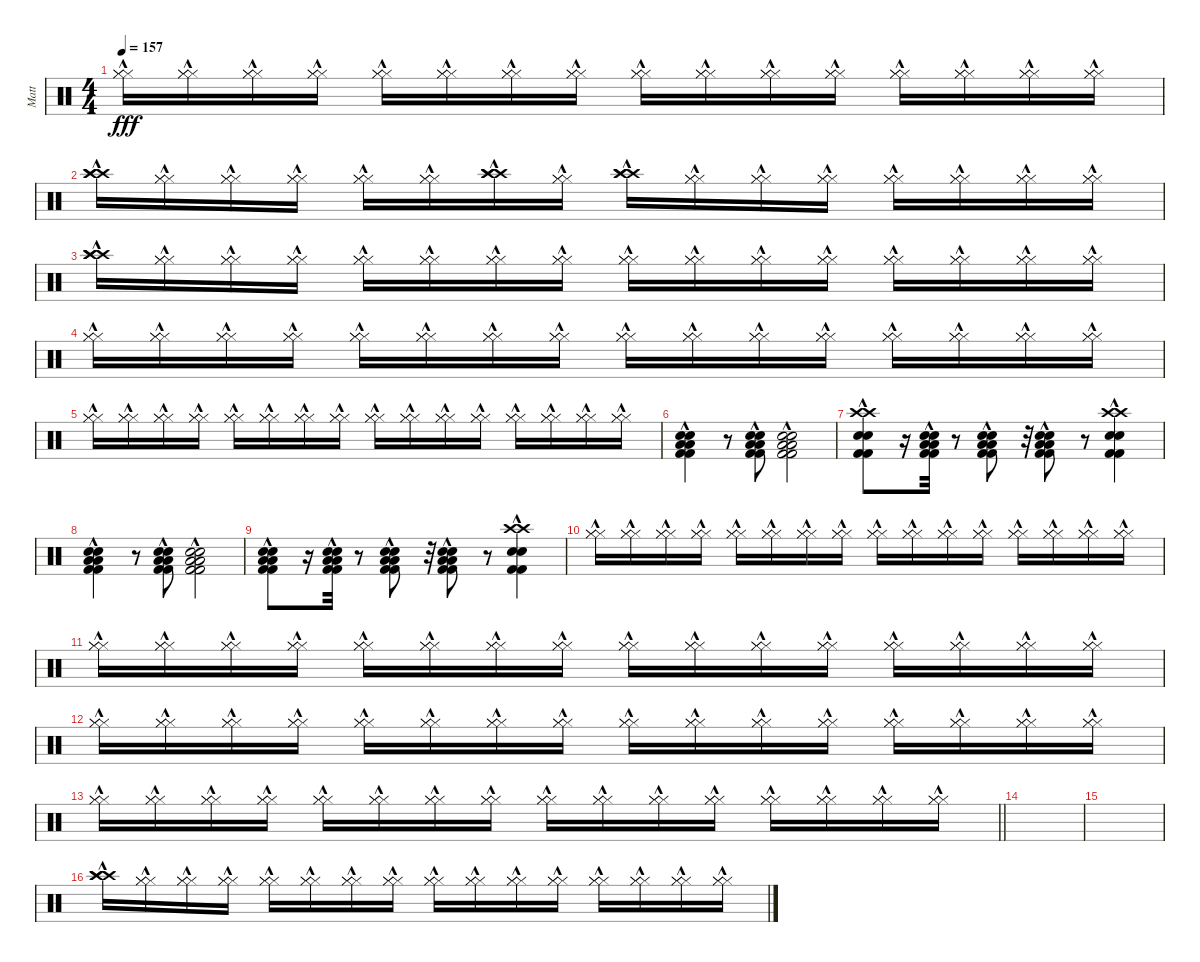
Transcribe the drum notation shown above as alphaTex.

\track ("Matt" "Matt") {instrument percussion}
\staff {score}
\articulation defaults
\ts (4 4)
\tempo 157
\clef neutral
\ks c
("Hi-Hat (closed)"{hac} "Hi-Hat (closed)"{hac} "Hi-Hat (closed)"{hac}).16{dy fff} ("Hi-Hat (closed)"{hac} "Hi-Hat (closed)"{hac} "Hi-Hat (closed)"{hac}).16 ("Hi-Hat (closed)"{hac} "Hi-Hat (closed)"{hac} "Hi-Hat (closed)"{hac}).16 ("Hi-Hat (closed)"{hac} "Hi-Hat (closed)"{hac} "Hi-Hat (closed)"{hac}).16 ("Hi-Hat (closed)"{hac} "Hi-Hat (closed)"{hac} "Hi-Hat (closed)"{hac}).16 ("Hi-Hat (closed)"{hac} "Hi-Hat (closed)"{hac} "Hi-Hat (closed)"{hac}).16 ("Hi-Hat (closed)"{hac} "Hi-Hat (closed)"{hac} "Hi-Hat (closed)"{hac}).16 ("Hi-Hat (closed)"{hac} "Hi-Hat (closed)"{hac} "Hi-Hat (closed)"{hac}).16 ("Hi-Hat (closed)"{hac} "Hi-Hat (closed)"{hac} "Hi-Hat (closed)"{hac}).16 ("Hi-Hat (closed)"{hac} "Hi-Hat (closed)"{hac} "Hi-Hat (closed)"{hac}).16 ("Hi-Hat (closed)"{hac} "Hi-Hat (closed)"{hac} "Hi-Hat (closed)"{hac}).16 ("Hi-Hat (closed)"{hac} "Hi-Hat (closed)"{hac} "Hi-Hat (closed)"{hac}).16 ("Hi-Hat (closed)"{hac} "Hi-Hat (closed)"{hac} "Hi-Hat (closed)"{hac}).16 ("Hi-Hat (closed)"{hac} "Hi-Hat (closed)"{hac} "Hi-Hat (closed)"{hac}).16 ("Hi-Hat (closed)"{hac} "Hi-Hat (closed)"{hac} "Hi-Hat (closed)"{hac}).16 ("Hi-Hat (closed)"{hac} "Hi-Hat (closed)"{hac} "Hi-Hat (closed)"{hac}).16 |
("Crash high (hit)"{hac} "Crash high (hit)"{hac} "Crash high (hit)"{hac}).16 ("Hi-Hat (closed)"{hac} "Hi-Hat (closed)"{hac} "Hi-Hat (closed)"{hac}).16 ("Hi-Hat (closed)"{hac} "Hi-Hat (closed)"{hac} "Hi-Hat (closed)"{hac}).16 ("Hi-Hat (closed)"{hac} "Hi-Hat (closed)"{hac} "Hi-Hat (closed)"{hac}).16 ("Hi-Hat (closed)"{hac} "Hi-Hat (closed)"{hac} "Hi-Hat (closed)"{hac}).16 ("Hi-Hat (closed)"{hac} "Hi-Hat (closed)"{hac} "Hi-Hat (closed)"{hac}).16 ("Crash high (hit)"{hac} "Crash high (hit)"{hac} "Crash high (hit)"{hac}).16 ("Hi-Hat (closed)"{hac} "Hi-Hat (closed)"{hac} "Hi-Hat (closed)"{hac}).16 ("Crash high (hit)"{hac} "Crash high (hit)"{hac} "Crash high (hit)"{hac}).16 ("Hi-Hat (closed)"{hac} "Hi-Hat (closed)"{hac} "Hi-Hat (closed)"{hac}).16 ("Hi-Hat (closed)"{hac} "Hi-Hat (closed)"{hac} "Hi-Hat (closed)"{hac}).16 ("Hi-Hat (closed)"{hac} "Hi-Hat (closed)"{hac} "Hi-Hat (closed)"{hac}).16 ("Hi-Hat (closed)"{hac} "Hi-Hat (closed)"{hac} "Hi-Hat (closed)"{hac}).16 ("Hi-Hat (closed)"{hac} "Hi-Hat (closed)"{hac} "Hi-Hat (closed)"{hac}).16 ("Hi-Hat (closed)"{hac} "Hi-Hat (closed)"{hac} "Hi-Hat (closed)"{hac}).16 ("Hi-Hat (closed)"{hac} "Hi-Hat (closed)"{hac} "Hi-Hat (closed)"{hac}).16 |
("Crash high (hit)"{hac} "Crash high (hit)"{hac} "Crash high (hit)"{hac}).16 ("Hi-Hat (closed)"{hac} "Hi-Hat (closed)"{hac} "Hi-Hat (closed)"{hac}).16 ("Hi-Hat (closed)"{hac} "Hi-Hat (closed)"{hac} "Hi-Hat (closed)"{hac}).16 ("Hi-Hat (closed)"{hac} "Hi-Hat (closed)"{hac} "Hi-Hat (closed)"{hac}).16 ("Hi-Hat (closed)"{hac} "Hi-Hat (closed)"{hac} "Hi-Hat (closed)"{hac}).16 ("Hi-Hat (closed)"{hac} "Hi-Hat (closed)"{hac} "Hi-Hat (closed)"{hac}).16 ("Hi-Hat (closed)"{hac} "Hi-Hat (closed)"{hac} "Hi-Hat (closed)"{hac}).16 ("Hi-Hat (closed)"{hac} "Hi-Hat (closed)"{hac} "Hi-Hat (closed)"{hac}).16 ("Hi-Hat (closed)"{hac} "Hi-Hat (closed)"{hac} "Hi-Hat (closed)"{hac}).16 ("Hi-Hat (closed)"{hac} "Hi-Hat (closed)"{hac} "Hi-Hat (closed)"{hac}).16 ("Hi-Hat (closed)"{hac} "Hi-Hat (closed)"{hac} "Hi-Hat (closed)"{hac}).16 ("Hi-Hat (closed)"{hac} "Hi-Hat (closed)"{hac} "Hi-Hat (closed)"{hac}).16 ("Hi-Hat (closed)"{hac} "Hi-Hat (closed)"{hac} "Hi-Hat (closed)"{hac}).16 ("Hi-Hat (closed)"{hac} "Hi-Hat (closed)"{hac} "Hi-Hat (closed)"{hac}).16 ("Hi-Hat (closed)"{hac} "Hi-Hat (closed)"{hac} "Hi-Hat (closed)"{hac}).16 ("Hi-Hat (closed)"{hac} "Hi-Hat (closed)"{hac} "Hi-Hat (closed)"{hac}).16 |
("Hi-Hat (closed)"{hac} "Hi-Hat (closed)"{hac} "Hi-Hat (closed)"{hac}).16 ("Hi-Hat (closed)"{hac} "Hi-Hat (closed)"{hac} "Hi-Hat (closed)"{hac}).16 ("Hi-Hat (closed)"{hac} "Hi-Hat (closed)"{hac} "Hi-Hat (closed)"{hac}).16 ("Hi-Hat (closed)"{hac} "Hi-Hat (closed)"{hac} "Hi-Hat (closed)"{hac}).16 ("Hi-Hat (closed)"{hac} "Hi-Hat (closed)"{hac} "Hi-Hat (closed)"{hac}).16 ("Hi-Hat (closed)"{hac} "Hi-Hat (closed)"{hac} "Hi-Hat (closed)"{hac}).16 ("Hi-Hat (closed)"{hac} "Hi-Hat (closed)"{hac} "Hi-Hat (closed)"{hac}).16 ("Hi-Hat (closed)"{hac} "Hi-Hat (closed)"{hac} "Hi-Hat (closed)"{hac}).16 ("Hi-Hat (closed)"{hac} "Hi-Hat (closed)"{hac} "Hi-Hat (closed)"{hac}).16 ("Hi-Hat (closed)"{hac} "Hi-Hat (closed)"{hac} "Hi-Hat (closed)"{hac}).16 ("Hi-Hat (closed)"{hac} "Hi-Hat (closed)"{hac} "Hi-Hat (closed)"{hac}).16 ("Hi-Hat (closed)"{hac} "Hi-Hat (closed)"{hac} "Hi-Hat (closed)"{hac}).16 ("Hi-Hat (closed)"{hac} "Hi-Hat (closed)"{hac} "Hi-Hat (closed)"{hac}).16 ("Hi-Hat (closed)"{hac} "Hi-Hat (closed)"{hac} "Hi-Hat (closed)"{hac}).16 ("Hi-Hat (closed)"{hac} "Hi-Hat (closed)"{hac} "Hi-Hat (closed)"{hac}).16 ("Hi-Hat (closed)"{hac} "Hi-Hat (closed)"{hac} "Hi-Hat (closed)"{hac}).16 |
("Hi-Hat (closed)"{hac} "Hi-Hat (closed)"{hac} "Hi-Hat (closed)"{hac}).16 ("Hi-Hat (closed)"{hac} "Hi-Hat (closed)"{hac} "Hi-Hat (closed)"{hac}).16 ("Hi-Hat (closed)"{hac} "Hi-Hat (closed)"{hac} "Hi-Hat (closed)"{hac}).16 ("Hi-Hat (closed)"{hac} "Hi-Hat (closed)"{hac} "Hi-Hat (closed)"{hac}).16 ("Hi-Hat (closed)"{hac} "Hi-Hat (closed)"{hac} "Hi-Hat (closed)"{hac}).16 ("Hi-Hat (closed)"{hac} "Hi-Hat (closed)"{hac} "Hi-Hat (closed)"{hac}).16 ("Hi-Hat (closed)"{hac} "Hi-Hat (closed)"{hac} "Hi-Hat (closed)"{hac}).16 ("Hi-Hat (closed)"{hac} "Hi-Hat (closed)"{hac} "Hi-Hat (closed)"{hac}).16 ("Hi-Hat (closed)"{hac} "Hi-Hat (closed)"{hac} "Hi-Hat (closed)"{hac}).16 ("Hi-Hat (closed)"{hac} "Hi-Hat (closed)"{hac} "Hi-Hat (closed)"{hac}).16 ("Hi-Hat (closed)"{hac} "Hi-Hat (closed)"{hac} "Hi-Hat (closed)"{hac}).16 ("Hi-Hat (closed)"{hac} "Hi-Hat (closed)"{hac} "Hi-Hat (closed)"{hac}).16 ("Hi-Hat (closed)"{hac} "Hi-Hat (closed)"{hac} "Hi-Hat (closed)"{hac}).16 ("Hi-Hat (closed)"{hac} "Hi-Hat (closed)"{hac} "Hi-Hat (closed)"{hac}).16 ("Hi-Hat (closed)"{hac} "Hi-Hat (closed)"{hac} "Hi-Hat (closed)"{hac}).16 ("Hi-Hat (closed)"{hac} "Hi-Hat (closed)"{hac} "Hi-Hat (closed)"{hac}).16 |
("Low Tom (hit)"{hac} "Low Tom (hit)"{hac} "Kick (hit) 2"{hac} "Kick (hit) 2"{hac} "Snare (hit) 2"{hac} "Snare (hit) 2"{hac}).4{volume 13} r.8 ("Low Tom (hit)"{hac} "Low Tom (hit)"{hac} "Kick (hit) 2"{hac} "Kick (hit) 2"{hac} "Snare (hit) 2"{hac} "Snare (hit) 2"{hac}).8 ("Low Tom (hit)"{hac} "Low Tom (hit)"{hac} "Kick (hit) 2"{hac} "Kick (hit) 2"{hac} "Snare (hit) 2"{hac} "Snare (hit) 2"{hac}).2 |
("Crash high (hit)"{hac} "Crash high (hit)"{hac} "Kick (hit) 2"{hac} "Kick (hit) 2"{hac} "Snare (hit) 2"{hac} "Snare (hit) 2"{hac}).8 r.16 ("Low Tom (hit)"{hac} "Low Tom (hit)"{hac} "Kick (hit) 2"{hac} "Kick (hit) 2"{hac} "Snare (hit) 2"{hac} "Snare (hit) 2"{hac}).32 r.8 ("Low Tom (hit)"{hac} "Low Tom (hit)"{hac} "Kick (hit) 2"{hac} "Kick (hit) 2"{hac} "Snare (hit) 2"{hac} "Snare (hit) 2"{hac}).8 r.32 ("Low Tom (hit)"{hac} "Low Tom (hit)"{hac} "Kick (hit) 2"{hac} "Kick (hit) 2"{hac} "Snare (hit) 2"{hac} "Snare (hit) 2"{hac}).8 r.8 ("Crash high (hit)"{hac} "Crash high (hit)"{hac} "Kick (hit) 2"{hac} "Kick (hit) 2"{hac} "Snare (hit) 2"{hac} "Snare (hit) 2"{hac}).4 |
("Low Tom (hit)"{hac} "Low Tom (hit)"{hac} "Kick (hit) 2"{hac} "Kick (hit) 2"{hac} "Snare (hit) 2"{hac} "Snare (hit) 2"{hac}).4{volume 13} r.8 ("Low Tom (hit)"{hac} "Low Tom (hit)"{hac} "Kick (hit) 2"{hac} "Kick (hit) 2"{hac} "Snare (hit) 2"{hac} "Snare (hit) 2"{hac}).8 ("Low Tom (hit)"{hac} "Low Tom (hit)"{hac} "Kick (hit) 2"{hac} "Kick (hit) 2"{hac} "Snare (hit) 2"{hac} "Snare (hit) 2"{hac}).2 |
("Low Tom (hit)"{hac} "Low Tom (hit)"{hac} "Kick (hit) 2"{hac} "Kick (hit) 2"{hac} "Snare (hit) 2"{hac} "Snare (hit) 2"{hac}).8 r.16 ("Low Tom (hit)"{hac} "Low Tom (hit)"{hac} "Kick (hit) 2"{hac} "Kick (hit) 2"{hac} "Snare (hit) 2"{hac} "Snare (hit) 2"{hac}).32 r.8 ("Low Tom (hit)"{hac} "Low Tom (hit)"{hac} "Kick (hit) 2"{hac} "Kick (hit) 2"{hac} "Snare (hit) 2"{hac} "Snare (hit) 2"{hac}).8 r.32 ("Low Tom (hit)"{hac} "Low Tom (hit)"{hac} "Kick (hit) 2"{hac} "Kick (hit) 2"{hac} "Snare (hit) 2"{hac} "Snare (hit) 2"{hac}).8 r.8 ("Crash high (hit)"{hac} "Crash high (hit)"{hac} "Kick (hit) 2"{hac} "Kick (hit) 2"{hac} "Snare (hit) 2"{hac} "Snare (hit) 2"{hac}).4 |
("Hi-Hat (closed)"{hac} "Hi-Hat (closed)"{hac} "Hi-Hat (closed)"{hac}).16 ("Hi-Hat (closed)"{hac} "Hi-Hat (closed)"{hac} "Hi-Hat (closed)"{hac}).16 ("Hi-Hat (closed)"{hac} "Hi-Hat (closed)"{hac} "Hi-Hat (closed)"{hac}).16 ("Hi-Hat (closed)"{hac} "Hi-Hat (closed)"{hac} "Hi-Hat (closed)"{hac}).16 ("Hi-Hat (closed)"{hac} "Hi-Hat (closed)"{hac} "Hi-Hat (closed)"{hac}).16 ("Hi-Hat (closed)"{hac} "Hi-Hat (closed)"{hac} "Hi-Hat (closed)"{hac}).16 ("Hi-Hat (closed)"{hac} "Hi-Hat (closed)"{hac} "Hi-Hat (closed)"{hac}).16 ("Hi-Hat (closed)"{hac} "Hi-Hat (closed)"{hac} "Hi-Hat (closed)"{hac}).16 ("Hi-Hat (closed)"{hac} "Hi-Hat (closed)"{hac} "Hi-Hat (closed)"{hac}).16 ("Hi-Hat (closed)"{hac} "Hi-Hat (closed)"{hac} "Hi-Hat (closed)"{hac}).16 ("Hi-Hat (closed)"{hac} "Hi-Hat (closed)"{hac} "Hi-Hat (closed)"{hac}).16 ("Hi-Hat (closed)"{hac} "Hi-Hat (closed)"{hac} "Hi-Hat (closed)"{hac}).16 ("Hi-Hat (closed)"{hac} "Hi-Hat (closed)"{hac} "Hi-Hat (closed)"{hac}).16 ("Hi-Hat (closed)"{hac} "Hi-Hat (closed)"{hac} "Hi-Hat (closed)"{hac}).16 ("Hi-Hat (closed)"{hac} "Hi-Hat (closed)"{hac} "Hi-Hat (closed)"{hac}).16 ("Hi-Hat (closed)"{hac} "Hi-Hat (closed)"{hac} "Hi-Hat (closed)"{hac}).16 |
("Hi-Hat (closed)"{hac} "Hi-Hat (closed)"{hac} "Hi-Hat (closed)"{hac}).16 ("Hi-Hat (closed)"{hac} "Hi-Hat (closed)"{hac} "Hi-Hat (closed)"{hac}).16 ("Hi-Hat (closed)"{hac} "Hi-Hat (closed)"{hac} "Hi-Hat (closed)"{hac}).16 ("Hi-Hat (closed)"{hac} "Hi-Hat (closed)"{hac} "Hi-Hat (closed)"{hac}).16 ("Hi-Hat (closed)"{hac} "Hi-Hat (closed)"{hac} "Hi-Hat (closed)"{hac}).16 ("Hi-Hat (closed)"{hac} "Hi-Hat (closed)"{hac} "Hi-Hat (closed)"{hac}).16 ("Hi-Hat (closed)"{hac} "Hi-Hat (closed)"{hac} "Hi-Hat (closed)"{hac}).16 ("Hi-Hat (closed)"{hac} "Hi-Hat (closed)"{hac} "Hi-Hat (closed)"{hac}).16 ("Hi-Hat (closed)"{hac} "Hi-Hat (closed)"{hac} "Hi-Hat (closed)"{hac}).16 ("Hi-Hat (closed)"{hac} "Hi-Hat (closed)"{hac} "Hi-Hat (closed)"{hac}).16 ("Hi-Hat (closed)"{hac} "Hi-Hat (closed)"{hac} "Hi-Hat (closed)"{hac}).16 ("Hi-Hat (closed)"{hac} "Hi-Hat (closed)"{hac} "Hi-Hat (closed)"{hac}).16 ("Hi-Hat (closed)"{hac} "Hi-Hat (closed)"{hac} "Hi-Hat (closed)"{hac}).16 ("Hi-Hat (closed)"{hac} "Hi-Hat (closed)"{hac} "Hi-Hat (closed)"{hac}).16 ("Hi-Hat (closed)"{hac} "Hi-Hat (closed)"{hac} "Hi-Hat (closed)"{hac}).16 ("Hi-Hat (closed)"{hac} "Hi-Hat (closed)"{hac} "Hi-Hat (closed)"{hac}).16 |
("Hi-Hat (closed)"{hac} "Hi-Hat (closed)"{hac} "Hi-Hat (closed)"{hac}).16 ("Hi-Hat (closed)"{hac} "Hi-Hat (closed)"{hac} "Hi-Hat (closed)"{hac}).16 ("Hi-Hat (closed)"{hac} "Hi-Hat (closed)"{hac} "Hi-Hat (closed)"{hac}).16 ("Hi-Hat (closed)"{hac} "Hi-Hat (closed)"{hac} "Hi-Hat (closed)"{hac}).16 ("Hi-Hat (closed)"{hac} "Hi-Hat (closed)"{hac} "Hi-Hat (closed)"{hac}).16 ("Hi-Hat (closed)"{hac} "Hi-Hat (closed)"{hac} "Hi-Hat (closed)"{hac}).16 ("Hi-Hat (closed)"{hac} "Hi-Hat (closed)"{hac} "Hi-Hat (closed)"{hac}).16 ("Hi-Hat (closed)"{hac} "Hi-Hat (closed)"{hac} "Hi-Hat (closed)"{hac}).16 ("Hi-Hat (closed)"{hac} "Hi-Hat (closed)"{hac} "Hi-Hat (closed)"{hac}).16 ("Hi-Hat (closed)"{hac} "Hi-Hat (closed)"{hac} "Hi-Hat (closed)"{hac}).16 ("Hi-Hat (closed)"{hac} "Hi-Hat (closed)"{hac} "Hi-Hat (closed)"{hac}).16 ("Hi-Hat (closed)"{hac} "Hi-Hat (closed)"{hac} "Hi-Hat (closed)"{hac}).16 ("Hi-Hat (closed)"{hac} "Hi-Hat (closed)"{hac} "Hi-Hat (closed)"{hac}).16 ("Hi-Hat (closed)"{hac} "Hi-Hat (closed)"{hac} "Hi-Hat (closed)"{hac}).16 ("Hi-Hat (closed)"{hac} "Hi-Hat (closed)"{hac} "Hi-Hat (closed)"{hac}).16 ("Hi-Hat (closed)"{hac} "Hi-Hat (closed)"{hac} "Hi-Hat (closed)"{hac}).16 |
\barLineRight lightlight
("Hi-Hat (closed)"{hac} "Hi-Hat (closed)"{hac} "Hi-Hat (closed)"{hac}).16 ("Hi-Hat (closed)"{hac} "Hi-Hat (closed)"{hac} "Hi-Hat (closed)"{hac}).16 ("Hi-Hat (closed)"{hac} "Hi-Hat (closed)"{hac} "Hi-Hat (closed)"{hac}).16 ("Hi-Hat (closed)"{hac} "Hi-Hat (closed)"{hac} "Hi-Hat (closed)"{hac}).16 ("Hi-Hat (closed)"{hac} "Hi-Hat (closed)"{hac} "Hi-Hat (closed)"{hac}).16 ("Hi-Hat (closed)"{hac} "Hi-Hat (closed)"{hac} "Hi-Hat (closed)"{hac}).16 ("Hi-Hat (closed)"{hac} "Hi-Hat (closed)"{hac} "Hi-Hat (closed)"{hac}).16 ("Hi-Hat (closed)"{hac} "Hi-Hat (closed)"{hac} "Hi-Hat (closed)"{hac}).16 ("Hi-Hat (closed)"{hac} "Hi-Hat (closed)"{hac} "Hi-Hat (closed)"{hac}).16 ("Hi-Hat (closed)"{hac} "Hi-Hat (closed)"{hac} "Hi-Hat (closed)"{hac}).16 ("Hi-Hat (closed)"{hac} "Hi-Hat (closed)"{hac} "Hi-Hat (closed)"{hac}).16 ("Hi-Hat (closed)"{hac} "Hi-Hat (closed)"{hac} "Hi-Hat (closed)"{hac}).16 ("Hi-Hat (closed)"{hac} "Hi-Hat (closed)"{hac} "Hi-Hat (closed)"{hac}).16 ("Hi-Hat (closed)"{hac} "Hi-Hat (closed)"{hac} "Hi-Hat (closed)"{hac}).16 ("Hi-Hat (closed)"{hac} "Hi-Hat (closed)"{hac} "Hi-Hat (closed)"{hac}).16 ("Hi-Hat (closed)"{hac} "Hi-Hat (closed)"{hac} "Hi-Hat (closed)"{hac}).16 |
|
|
("Crash high (hit)"{hac} "Crash high (hit)"{hac} "Crash high (hit)"{hac}).16 ("Hi-Hat (closed)"{hac} "Hi-Hat (closed)"{hac} "Hi-Hat (closed)"{hac}).16 ("Hi-Hat (closed)"{hac} "Hi-Hat (closed)"{hac} "Hi-Hat (closed)"{hac}).16 ("Hi-Hat (closed)"{hac} "Hi-Hat (closed)"{hac} "Hi-Hat (closed)"{hac}).16 ("Hi-Hat (closed)"{hac} "Hi-Hat (closed)"{hac} "Hi-Hat (closed)"{hac}).16 ("Hi-Hat (closed)"{hac} "Hi-Hat (closed)"{hac} "Hi-Hat (closed)"{hac}).16 ("Hi-Hat (closed)"{hac} "Hi-Hat (closed)"{hac} "Hi-Hat (closed)"{hac}).16 ("Hi-Hat (closed)"{hac} "Hi-Hat (closed)"{hac} "Hi-Hat (closed)"{hac}).16 ("Hi-Hat (closed)"{hac} "Hi-Hat (closed)"{hac} "Hi-Hat (closed)"{hac}).16 ("Hi-Hat (closed)"{hac} "Hi-Hat (closed)"{hac} "Hi-Hat (closed)"{hac}).16 ("Hi-Hat (closed)"{hac} "Hi-Hat (closed)"{hac} "Hi-Hat (closed)"{hac}).16 ("Hi-Hat (closed)"{hac} "Hi-Hat (closed)"{hac} "Hi-Hat (closed)"{hac}).16 ("Hi-Hat (closed)"{hac} "Hi-Hat (closed)"{hac} "Hi-Hat (closed)"{hac}).16 ("Hi-Hat (closed)"{hac} "Hi-Hat (closed)"{hac} "Hi-Hat (closed)"{hac}).16 ("Hi-Hat (closed)"{hac} "Hi-Hat (closed)"{hac} "Hi-Hat (closed)"{hac}).16 ("Hi-Hat (closed)"{hac} "Hi-Hat (closed)"{hac} "Hi-Hat (closed)"{hac}).16
